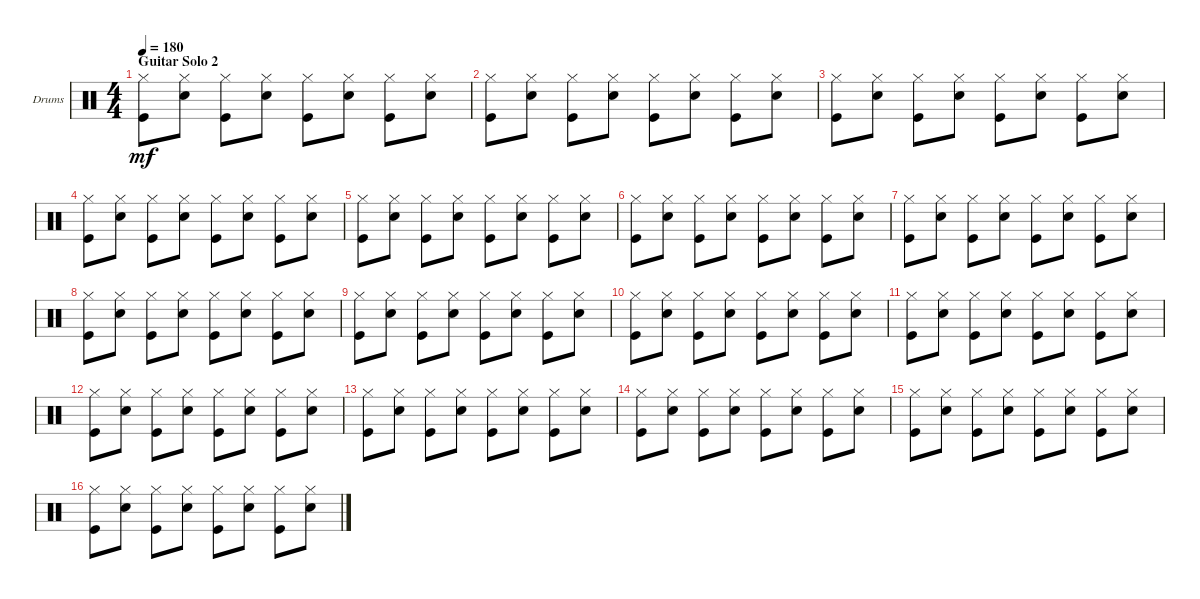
\bracketExtendMode groupsimilarinstruments
\firstSystemTrackNameOrientation horizontal
\otherSystemsTrackNameOrientation horizontal
\track ("Drumkit" "Drums") {instrument percussion}
\staff {score}
\articulation defaults
\ts (4 4)
\beaming (8 2 2 2 2)
\section ("" "Guitar Solo 2")
\tempo 180
\clef neutral
\ks c
("Kick (hit)" "Hi-Hat (closed)").8{dy mf} ("Snare (hit) 2" "Hi-Hat (closed)").8 ("Kick (hit)" "Hi-Hat (closed)").8 ("Snare (hit) 2" "Hi-Hat (closed)").8 ("Kick (hit)" "Hi-Hat (closed)").8 ("Snare (hit) 2" "Hi-Hat (closed)").8 ("Kick (hit)" "Hi-Hat (closed)").8 ("Snare (hit) 2" "Hi-Hat (closed)").8 |
("Kick (hit)" "Hi-Hat (closed)").8 ("Snare (hit) 2" "Hi-Hat (closed)").8 ("Kick (hit)" "Hi-Hat (closed)").8 ("Snare (hit) 2" "Hi-Hat (closed)").8 ("Kick (hit)" "Hi-Hat (closed)").8 ("Snare (hit) 2" "Hi-Hat (closed)").8 ("Kick (hit)" "Hi-Hat (closed)").8 ("Snare (hit) 2" "Hi-Hat (closed)").8 |
("Kick (hit)" "Hi-Hat (closed)").8 ("Snare (hit) 2" "Hi-Hat (closed)").8 ("Kick (hit)" "Hi-Hat (closed)").8 ("Snare (hit) 2" "Hi-Hat (closed)").8 ("Kick (hit)" "Hi-Hat (closed)").8 ("Snare (hit) 2" "Hi-Hat (closed)").8 ("Kick (hit)" "Hi-Hat (closed)").8 ("Snare (hit) 2" "Hi-Hat (closed)").8 |
("Kick (hit)" "Hi-Hat (closed)").8 ("Snare (hit) 2" "Hi-Hat (closed)").8 ("Kick (hit)" "Hi-Hat (closed)").8 ("Snare (hit) 2" "Hi-Hat (closed)").8 ("Kick (hit)" "Hi-Hat (closed)").8 ("Snare (hit) 2" "Hi-Hat (closed)").8 ("Kick (hit)" "Hi-Hat (closed)").8 ("Snare (hit) 2" "Hi-Hat (closed)").8 |
("Kick (hit)" "Hi-Hat (closed)").8 ("Snare (hit) 2" "Hi-Hat (closed)").8 ("Kick (hit)" "Hi-Hat (closed)").8 ("Snare (hit) 2" "Hi-Hat (closed)").8 ("Kick (hit)" "Hi-Hat (closed)").8 ("Snare (hit) 2" "Hi-Hat (closed)").8 ("Kick (hit)" "Hi-Hat (closed)").8 ("Snare (hit) 2" "Hi-Hat (closed)").8 |
("Kick (hit)" "Hi-Hat (closed)").8 ("Snare (hit) 2" "Hi-Hat (closed)").8 ("Kick (hit)" "Hi-Hat (closed)").8 ("Snare (hit) 2" "Hi-Hat (closed)").8 ("Kick (hit)" "Hi-Hat (closed)").8 ("Snare (hit) 2" "Hi-Hat (closed)").8 ("Kick (hit)" "Hi-Hat (closed)").8 ("Snare (hit) 2" "Hi-Hat (closed)").8 |
("Kick (hit)" "Hi-Hat (closed)").8 ("Snare (hit) 2" "Hi-Hat (closed)").8 ("Kick (hit)" "Hi-Hat (closed)").8 ("Snare (hit) 2" "Hi-Hat (closed)").8 ("Kick (hit)" "Hi-Hat (closed)").8 ("Snare (hit) 2" "Hi-Hat (closed)").8 ("Kick (hit)" "Hi-Hat (closed)").8 ("Snare (hit) 2" "Hi-Hat (closed)").8 |
("Kick (hit)" "Hi-Hat (closed)").8 ("Snare (hit) 2" "Hi-Hat (closed)").8 ("Kick (hit)" "Hi-Hat (closed)").8 ("Snare (hit) 2" "Hi-Hat (closed)").8 ("Kick (hit)" "Hi-Hat (closed)").8 ("Snare (hit) 2" "Hi-Hat (closed)").8 ("Kick (hit)" "Hi-Hat (closed)").8 ("Snare (hit) 2" "Hi-Hat (closed)").8 |
("Kick (hit)" "Hi-Hat (closed)").8 ("Snare (hit) 2" "Hi-Hat (closed)").8 ("Kick (hit)" "Hi-Hat (closed)").8 ("Snare (hit) 2" "Hi-Hat (closed)").8 ("Kick (hit)" "Hi-Hat (closed)").8 ("Snare (hit) 2" "Hi-Hat (closed)").8 ("Kick (hit)" "Hi-Hat (closed)").8 ("Snare (hit) 2" "Hi-Hat (closed)").8 |
("Kick (hit)" "Hi-Hat (closed)").8 ("Snare (hit) 2" "Hi-Hat (closed)").8 ("Kick (hit)" "Hi-Hat (closed)").8 ("Snare (hit) 2" "Hi-Hat (closed)").8 ("Kick (hit)" "Hi-Hat (closed)").8 ("Snare (hit) 2" "Hi-Hat (closed)").8 ("Kick (hit)" "Hi-Hat (closed)").8 ("Snare (hit) 2" "Hi-Hat (closed)").8 |
("Kick (hit)" "Hi-Hat (closed)").8 ("Snare (hit) 2" "Hi-Hat (closed)").8 ("Kick (hit)" "Hi-Hat (closed)").8 ("Snare (hit) 2" "Hi-Hat (closed)").8 ("Kick (hit)" "Hi-Hat (closed)").8 ("Snare (hit) 2" "Hi-Hat (closed)").8 ("Kick (hit)" "Hi-Hat (closed)").8 ("Snare (hit) 2" "Hi-Hat (closed)").8 |
("Kick (hit)" "Hi-Hat (closed)").8 ("Snare (hit) 2" "Hi-Hat (closed)").8 ("Kick (hit)" "Hi-Hat (closed)").8 ("Snare (hit) 2" "Hi-Hat (closed)").8 ("Kick (hit)" "Hi-Hat (closed)").8 ("Snare (hit) 2" "Hi-Hat (closed)").8 ("Kick (hit)" "Hi-Hat (closed)").8 ("Snare (hit) 2" "Hi-Hat (closed)").8 |
("Kick (hit)" "Hi-Hat (closed)").8 ("Snare (hit) 2" "Hi-Hat (closed)").8 ("Kick (hit)" "Hi-Hat (closed)").8 ("Snare (hit) 2" "Hi-Hat (closed)").8 ("Kick (hit)" "Hi-Hat (closed)").8 ("Snare (hit) 2" "Hi-Hat (closed)").8 ("Kick (hit)" "Hi-Hat (closed)").8 ("Snare (hit) 2" "Hi-Hat (closed)").8 |
("Kick (hit)" "Hi-Hat (closed)").8 ("Snare (hit) 2" "Hi-Hat (closed)").8 ("Kick (hit)" "Hi-Hat (closed)").8 ("Snare (hit) 2" "Hi-Hat (closed)").8 ("Kick (hit)" "Hi-Hat (closed)").8 ("Snare (hit) 2" "Hi-Hat (closed)").8 ("Kick (hit)" "Hi-Hat (closed)").8 ("Snare (hit) 2" "Hi-Hat (closed)").8 |
("Kick (hit)" "Hi-Hat (closed)").8 ("Snare (hit) 2" "Hi-Hat (closed)").8 ("Kick (hit)" "Hi-Hat (closed)").8 ("Snare (hit) 2" "Hi-Hat (closed)").8 ("Kick (hit)" "Hi-Hat (closed)").8 ("Snare (hit) 2" "Hi-Hat (closed)").8 ("Kick (hit)" "Hi-Hat (closed)").8 ("Snare (hit) 2" "Hi-Hat (closed)").8 |
("Kick (hit)" "Hi-Hat (closed)").8 ("Snare (hit) 2" "Hi-Hat (closed)").8 ("Kick (hit)" "Hi-Hat (closed)").8 ("Snare (hit) 2" "Hi-Hat (closed)").8 ("Kick (hit)" "Hi-Hat (closed)").8 ("Snare (hit) 2" "Hi-Hat (closed)").8 ("Kick (hit)" "Hi-Hat (closed)").8 ("Snare (hit) 2" "Hi-Hat (closed)").8
